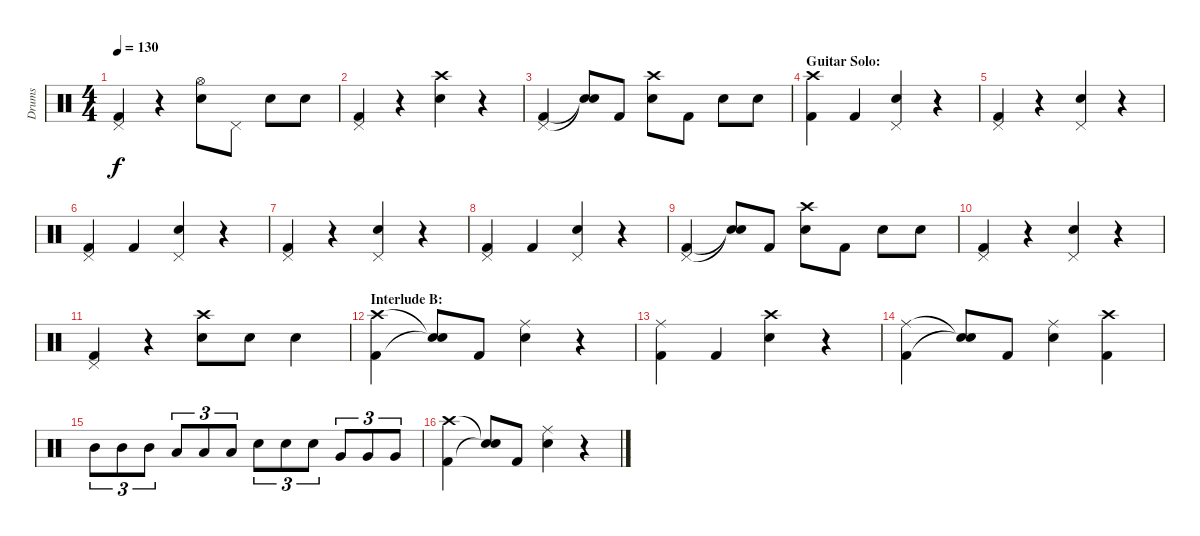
\track ("Drums" "Drums") {instrument percussion}
\staff {score}
\articulation defaults
\ts (4 4)
\tempo 130
\clef neutral
\ks c
("Pedal Hi-Hat (hit)" "Kick (hit) 2").4{dy f} r.4 ("Hi-Hat (open)" "Electric Snare (hit)").8 "Pedal Hi-Hat (hit)".8 "Electric Snare (hit)".8 "Electric Snare (hit)".8 |
("Pedal Hi-Hat (hit)" "Kick (hit) 2").4 r.4 ("Crash high (hit)" "Electric Snare (hit)").4 r.4 |
("Pedal Hi-Hat (hit)" "Kick (hit) 2").4 ("Snare (hit)"{t} "Snare (hit)"{t}).8 "Kick (hit) 2".8 ("Crash high (hit)" "Electric Snare (hit)").8 "Kick (hit) 2".8 "Electric Snare (hit)".8 "Electric Snare (hit)".8 |
\section ("" "Guitar Solo:")
("Crash high (hit)" "Kick (hit) 2").4 "Kick (hit) 2".4 ("Pedal Hi-Hat (hit)" "Electric Snare (hit)").4 r.4 |
("Pedal Hi-Hat (hit)" "Kick (hit) 2").4 r.4 ("Pedal Hi-Hat (hit)" "Electric Snare (hit)").4 r.4 |
("Pedal Hi-Hat (hit)" "Kick (hit) 2").4 "Kick (hit) 2".4 ("Pedal Hi-Hat (hit)" "Electric Snare (hit)").4 r.4 |
("Pedal Hi-Hat (hit)" "Kick (hit) 2").4 r.4 ("Pedal Hi-Hat (hit)" "Electric Snare (hit)").4 r.4 |
("Pedal Hi-Hat (hit)" "Kick (hit) 2").4 "Kick (hit) 2".4 ("Pedal Hi-Hat (hit)" "Electric Snare (hit)").4 r.4 |
("Pedal Hi-Hat (hit)" "Kick (hit) 2").4 ("Snare (hit)"{t} "Snare (hit)"{t}).8 "Kick (hit) 2".8 ("Crash high (hit)" "Electric Snare (hit)").8 "Kick (hit) 2".8 "Electric Snare (hit)".8 "Electric Snare (hit)".8 |
("Pedal Hi-Hat (hit)" "Kick (hit) 2").4 r.4 ("Pedal Hi-Hat (hit)" "Electric Snare (hit)").4 r.4 |
("Pedal Hi-Hat (hit)" "Kick (hit) 2").4 r.4 ("Crash high (hit)" "Electric Snare (hit)").8 "Electric Snare (hit)".8 "Electric Snare (hit)".4 |
\section ("" "Interlude B:")
("Crash high (hit)" "Kick (hit) 2").4 ("Snare (hit)"{t} "Snare (hit)"{t}).8 "Kick (hit) 2".8 ("Ride (middle)" "Electric Snare (hit)").4 r.4 |
("Ride (middle)" "Kick (hit) 2").4 "Kick (hit) 2".4 ("Crash high (hit)" "Electric Snare (hit)").4 r.4 |
("Ride (middle)" "Kick (hit) 2").4 ("Snare (hit)"{t} "Snare (hit)"{t}).8 "Kick (hit) 2".8 ("Ride (middle)" "Electric Snare (hit)").4 ("Crash high (hit)" "Kick (hit) 2").4 |
"Mid Tom (hit)".8{tu (3 2)} "Mid Tom (hit)".8{tu (3 2)} "Mid Tom (hit)".8{tu (3 2)} "Low Tom (hit)".8{tu (3 2)} "Low Tom (hit)".8{tu (3 2)} "Low Tom (hit)".8{tu (3 2)} "Electric Snare (hit)".8{tu (3 2)} "Electric Snare (hit)".8{tu (3 2)} "Electric Snare (hit)".8{tu (3 2)} "Very Low Tom (hit)".8{tu (3 2)} "Very Low Tom (hit)".8{tu (3 2)} "Very Low Tom (hit)".8{tu (3 2)} |
("Crash high (hit)" "Kick (hit) 2").4 ("Snare (hit)"{t} "Snare (hit)"{t}).8 "Kick (hit) 2".8 ("Ride (middle)" "Electric Snare (hit)").4 r.4
